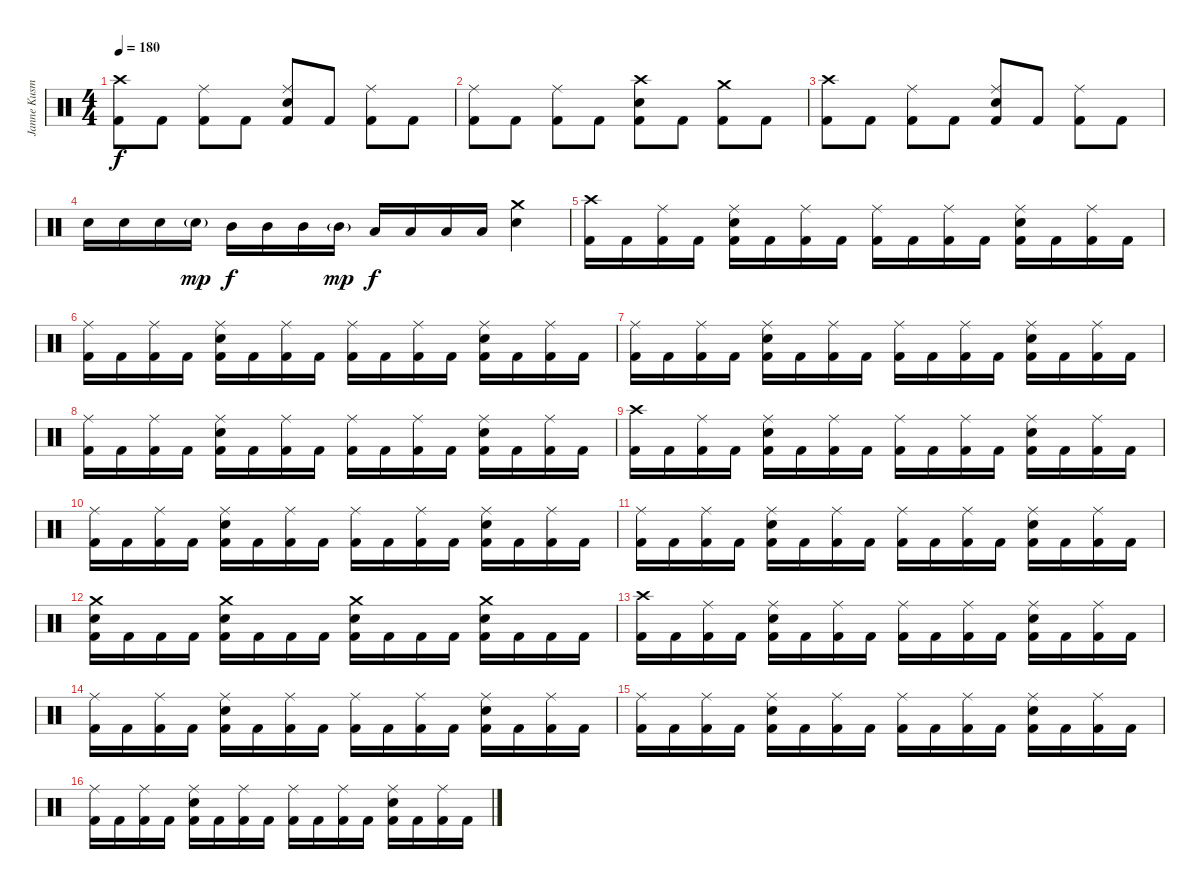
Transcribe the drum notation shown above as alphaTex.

\track ("Janne Kusmin - Drums" "Janne Kusm") {instrument percussion}
\staff {score}
\articulation defaults
\ts (4 4)
\tempo 180
\clef neutral
\ks c
("Crash high (hit)" "Kick (hit) 2").8{dy f} "Kick (hit) 2".8 ("Ride (middle)" "Kick (hit) 2").8 "Kick (hit) 2".8 ("Ride (middle)" "Electric Snare (hit)" "Kick (hit) 2").8 "Kick (hit) 2".8 ("Ride (middle)" "Kick (hit) 2").8 "Kick (hit) 2".8 |
("Ride (middle)" "Kick (hit) 2").8 "Kick (hit) 2".8 ("Ride (middle)" "Kick (hit) 2").8 "Kick (hit) 2".8 ("Crash high (hit)" "Electric Snare (hit)" "Kick (hit) 2").8 "Kick (hit) 2".8 ("Crash medium (hit)" "Kick (hit) 2").8 "Kick (hit) 2".8 |
("Crash high (hit)" "Kick (hit) 2").8 "Kick (hit) 2".8 ("Ride (middle)" "Kick (hit) 2").8 "Kick (hit) 2".8 ("Ride (middle)" "Electric Snare (hit)" "Kick (hit) 2").8 "Kick (hit) 2".8 ("Ride (middle)" "Kick (hit) 2").8 "Kick (hit) 2".8 |
"Electric Snare (hit)".16 "Electric Snare (hit)".16 "Electric Snare (hit)".16 "Electric Snare (hit)"{g}.16{dy mp} "Mid Tom (hit)".16{dy f} "Mid Tom (hit)".16 "Mid Tom (hit)".16 "Mid Tom (hit)"{g}.16{dy mp} "Low Tom (hit)".16{dy f} "Low Tom (hit)".16 "Low Tom (hit)".16 "Low Tom (hit)".16 ("Crash medium (hit)" "Electric Snare (hit)").4 |
\section ("" "")
("Crash high (hit)" "Kick (hit) 2").16 "Kick (hit) 2".16 ("Ride (middle)" "Kick (hit) 2").16 "Kick (hit) 2".16 ("Ride (middle)" "Electric Snare (hit)" "Kick (hit) 2").16 "Kick (hit) 2".16 ("Ride (middle)" "Kick (hit) 2").16 "Kick (hit) 2".16 ("Ride (middle)" "Kick (hit) 2").16 "Kick (hit) 2".16 ("Ride (middle)" "Kick (hit) 2").16 "Kick (hit) 2".16 ("Ride (middle)" "Electric Snare (hit)" "Kick (hit) 2").16 "Kick (hit) 2".16 ("Ride (middle)" "Kick (hit) 2").16 "Kick (hit) 2".16 |
("Ride (middle)" "Kick (hit) 2").16 "Kick (hit) 2".16 ("Ride (middle)" "Kick (hit) 2").16 "Kick (hit) 2".16 ("Ride (middle)" "Electric Snare (hit)" "Kick (hit) 2").16 "Kick (hit) 2".16 ("Ride (middle)" "Kick (hit) 2").16 "Kick (hit) 2".16 ("Ride (middle)" "Kick (hit) 2").16 "Kick (hit) 2".16 ("Ride (middle)" "Kick (hit) 2").16 "Kick (hit) 2".16 ("Ride (middle)" "Electric Snare (hit)" "Kick (hit) 2").16 "Kick (hit) 2".16 ("Ride (middle)" "Kick (hit) 2").16 "Kick (hit) 2".16 |
("Ride (middle)" "Kick (hit) 2").16 "Kick (hit) 2".16 ("Ride (middle)" "Kick (hit) 2").16 "Kick (hit) 2".16 ("Ride (middle)" "Electric Snare (hit)" "Kick (hit) 2").16 "Kick (hit) 2".16 ("Ride (middle)" "Kick (hit) 2").16 "Kick (hit) 2".16 ("Ride (middle)" "Kick (hit) 2").16 "Kick (hit) 2".16 ("Ride (middle)" "Kick (hit) 2").16 "Kick (hit) 2".16 ("Ride (middle)" "Electric Snare (hit)" "Kick (hit) 2").16 "Kick (hit) 2".16 ("Ride (middle)" "Kick (hit) 2").16 "Kick (hit) 2".16 |
("Ride (middle)" "Kick (hit) 2").16 "Kick (hit) 2".16 ("Ride (middle)" "Kick (hit) 2").16 "Kick (hit) 2".16 ("Ride (middle)" "Electric Snare (hit)" "Kick (hit) 2").16 "Kick (hit) 2".16 ("Ride (middle)" "Kick (hit) 2").16 "Kick (hit) 2".16 ("Ride (middle)" "Kick (hit) 2").16 "Kick (hit) 2".16 ("Ride (middle)" "Kick (hit) 2").16 "Kick (hit) 2".16 ("Ride (middle)" "Electric Snare (hit)" "Kick (hit) 2").16 "Kick (hit) 2".16 ("Ride (middle)" "Kick (hit) 2").16 "Kick (hit) 2".16 |
("Crash high (hit)" "Kick (hit) 2").16 "Kick (hit) 2".16 ("Ride (middle)" "Kick (hit) 2").16 "Kick (hit) 2".16 ("Ride (middle)" "Electric Snare (hit)" "Kick (hit) 2").16 "Kick (hit) 2".16 ("Ride (middle)" "Kick (hit) 2").16 "Kick (hit) 2".16 ("Ride (middle)" "Kick (hit) 2").16 "Kick (hit) 2".16 ("Ride (middle)" "Kick (hit) 2").16 "Kick (hit) 2".16 ("Ride (middle)" "Electric Snare (hit)" "Kick (hit) 2").16 "Kick (hit) 2".16 ("Ride (middle)" "Kick (hit) 2").16 "Kick (hit) 2".16 |
("Ride (middle)" "Kick (hit) 2").16 "Kick (hit) 2".16 ("Ride (middle)" "Kick (hit) 2").16 "Kick (hit) 2".16 ("Ride (middle)" "Electric Snare (hit)" "Kick (hit) 2").16 "Kick (hit) 2".16 ("Ride (middle)" "Kick (hit) 2").16 "Kick (hit) 2".16 ("Ride (middle)" "Kick (hit) 2").16 "Kick (hit) 2".16 ("Ride (middle)" "Kick (hit) 2").16 "Kick (hit) 2".16 ("Ride (middle)" "Electric Snare (hit)" "Kick (hit) 2").16 "Kick (hit) 2".16 ("Ride (middle)" "Kick (hit) 2").16 "Kick (hit) 2".16 |
("Ride (middle)" "Kick (hit) 2").16 "Kick (hit) 2".16 ("Ride (middle)" "Kick (hit) 2").16 "Kick (hit) 2".16 ("Ride (middle)" "Electric Snare (hit)" "Kick (hit) 2").16 "Kick (hit) 2".16 ("Ride (middle)" "Kick (hit) 2").16 "Kick (hit) 2".16 ("Ride (middle)" "Kick (hit) 2").16 "Kick (hit) 2".16 ("Ride (middle)" "Kick (hit) 2").16 "Kick (hit) 2".16 ("Ride (middle)" "Electric Snare (hit)" "Kick (hit) 2").16 "Kick (hit) 2".16 ("Ride (middle)" "Kick (hit) 2").16 "Kick (hit) 2".16 |
("Crash medium (hit)" "Electric Snare (hit)" "Kick (hit) 2").16 "Kick (hit) 2".16 "Kick (hit) 2".16 "Kick (hit) 2".16 ("Crash medium (hit)" "Electric Snare (hit)" "Kick (hit) 2").16 "Kick (hit) 2".16 "Kick (hit) 2".16 "Kick (hit) 2".16 ("Crash medium (hit)" "Electric Snare (hit)" "Kick (hit) 2").16 "Kick (hit) 2".16 "Kick (hit) 2".16 "Kick (hit) 2".16 ("Crash medium (hit)" "Electric Snare (hit)" "Kick (hit) 2").16 "Kick (hit) 2".16 "Kick (hit) 2".16 "Kick (hit) 2".16 |
("Crash high (hit)" "Kick (hit) 2").16 "Kick (hit) 2".16 ("Ride (middle)" "Kick (hit) 2").16 "Kick (hit) 2".16 ("Ride (middle)" "Electric Snare (hit)" "Kick (hit) 2").16 "Kick (hit) 2".16 ("Ride (middle)" "Kick (hit) 2").16 "Kick (hit) 2".16 ("Ride (middle)" "Kick (hit) 2").16 "Kick (hit) 2".16 ("Ride (middle)" "Kick (hit) 2").16 "Kick (hit) 2".16 ("Ride (middle)" "Electric Snare (hit)" "Kick (hit) 2").16 "Kick (hit) 2".16 ("Ride (middle)" "Kick (hit) 2").16 "Kick (hit) 2".16 |
("Ride (middle)" "Kick (hit) 2").16 "Kick (hit) 2".16 ("Ride (middle)" "Kick (hit) 2").16 "Kick (hit) 2".16 ("Ride (middle)" "Electric Snare (hit)" "Kick (hit) 2").16 "Kick (hit) 2".16 ("Ride (middle)" "Kick (hit) 2").16 "Kick (hit) 2".16 ("Ride (middle)" "Kick (hit) 2").16 "Kick (hit) 2".16 ("Ride (middle)" "Kick (hit) 2").16 "Kick (hit) 2".16 ("Ride (middle)" "Electric Snare (hit)" "Kick (hit) 2").16 "Kick (hit) 2".16 ("Ride (middle)" "Kick (hit) 2").16 "Kick (hit) 2".16 |
("Ride (middle)" "Kick (hit) 2").16 "Kick (hit) 2".16 ("Ride (middle)" "Kick (hit) 2").16 "Kick (hit) 2".16 ("Ride (middle)" "Electric Snare (hit)" "Kick (hit) 2").16 "Kick (hit) 2".16 ("Ride (middle)" "Kick (hit) 2").16 "Kick (hit) 2".16 ("Ride (middle)" "Kick (hit) 2").16 "Kick (hit) 2".16 ("Ride (middle)" "Kick (hit) 2").16 "Kick (hit) 2".16 ("Ride (middle)" "Electric Snare (hit)" "Kick (hit) 2").16 "Kick (hit) 2".16 ("Ride (middle)" "Kick (hit) 2").16 "Kick (hit) 2".16 |
("Ride (middle)" "Kick (hit) 2").16 "Kick (hit) 2".16 ("Ride (middle)" "Kick (hit) 2").16 "Kick (hit) 2".16 ("Ride (middle)" "Electric Snare (hit)" "Kick (hit) 2").16 "Kick (hit) 2".16 ("Ride (middle)" "Kick (hit) 2").16 "Kick (hit) 2".16 ("Ride (middle)" "Kick (hit) 2").16 "Kick (hit) 2".16 ("Ride (middle)" "Kick (hit) 2").16 "Kick (hit) 2".16 ("Ride (middle)" "Electric Snare (hit)" "Kick (hit) 2").16 "Kick (hit) 2".16 ("Ride (middle)" "Kick (hit) 2").16 "Kick (hit) 2".16
